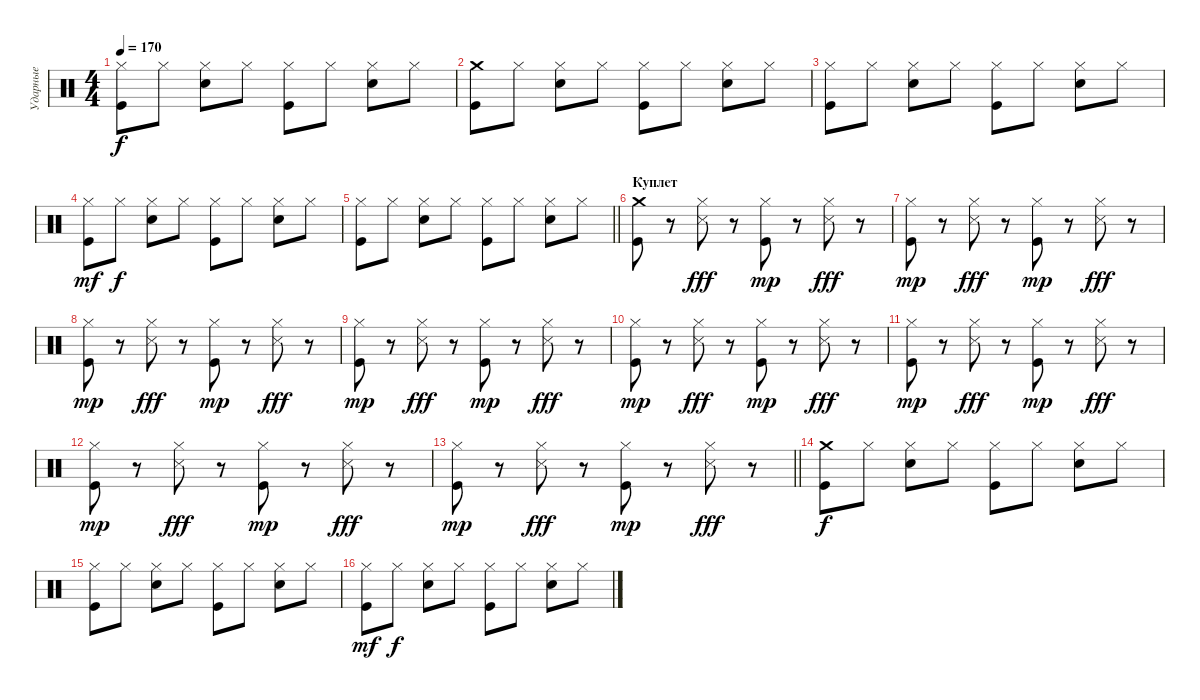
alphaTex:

\track ("Ударные" "Ударные") {instrument percussion}
\staff {score}
\articulation defaults
\ts (4 4)
\tempo 170
\clef neutral
\ks c
("Hi-Hat (closed)" "Kick (hit)").8{dy f} "Hi-Hat (closed)".8 ("Hi-Hat (closed)" "Electric Snare (hit)").8 "Hi-Hat (closed)".8 ("Hi-Hat (closed)" "Kick (hit)").8 "Hi-Hat (closed)".8 ("Hi-Hat (closed)" "Electric Snare (hit)").8 "Hi-Hat (closed)".8 |
("Crash medium (hit)" "Kick (hit)").8 "Hi-Hat (closed)".8 ("Hi-Hat (closed)" "Electric Snare (hit)").8 "Hi-Hat (closed)".8 ("Hi-Hat (closed)" "Kick (hit)").8 "Hi-Hat (closed)".8 ("Hi-Hat (closed)" "Electric Snare (hit)").8 "Hi-Hat (closed)".8 |
("Hi-Hat (closed)" "Kick (hit)").8 "Hi-Hat (closed)".8 ("Hi-Hat (closed)" "Electric Snare (hit)").8 "Hi-Hat (closed)".8 ("Hi-Hat (closed)" "Kick (hit)").8 "Hi-Hat (closed)".8 ("Hi-Hat (closed)" "Electric Snare (hit)").8 "Hi-Hat (closed)".8 |
("Hi-Hat (closed)" "Kick (hit)").8{dy mf} "Hi-Hat (closed)".8{dy f} ("Hi-Hat (closed)" "Electric Snare (hit)").8 "Hi-Hat (closed)".8 ("Hi-Hat (closed)" "Kick (hit)").8 "Hi-Hat (closed)".8 ("Hi-Hat (closed)" "Electric Snare (hit)").8 "Hi-Hat (closed)".8 |
\barLineRight lightlight
("Hi-Hat (closed)" "Kick (hit)").8 "Hi-Hat (closed)".8 ("Hi-Hat (closed)" "Electric Snare (hit)").8 "Hi-Hat (closed)".8 ("Hi-Hat (closed)" "Kick (hit)").8 "Hi-Hat (closed)".8 ("Hi-Hat (closed)" "Electric Snare (hit)").8 "Hi-Hat (closed)".8 |
\section ("" "Куплет")
("Crash medium (hit)" "Kick (hit)").8 r.8 ("Hi-Hat (closed)" "Metronome (hit)").8{dy fff} r.8 ("Hi-Hat (closed)" "Kick (hit)").8{dy mp} r.8 ("Hi-Hat (closed)" "Metronome (hit)").8{dy fff} r.8 |
("Hi-Hat (closed)" "Kick (hit)").8{dy mp} r.8 ("Hi-Hat (closed)" "Metronome (hit)").8{dy fff} r.8 ("Hi-Hat (closed)" "Kick (hit)").8{dy mp} r.8 ("Hi-Hat (closed)" "Metronome (hit)").8{dy fff} r.8 |
("Hi-Hat (closed)" "Kick (hit)").8{dy mp} r.8 ("Hi-Hat (closed)" "Metronome (hit)").8{dy fff} r.8 ("Hi-Hat (closed)" "Kick (hit)").8{dy mp} r.8 ("Hi-Hat (closed)" "Metronome (hit)").8{dy fff} r.8 |
("Hi-Hat (closed)" "Kick (hit)").8{dy mp} r.8 ("Hi-Hat (closed)" "Metronome (hit)").8{dy fff} r.8 ("Hi-Hat (closed)" "Kick (hit)").8{dy mp} r.8 ("Hi-Hat (closed)" "Metronome (hit)").8{dy fff} r.8 |
("Hi-Hat (closed)" "Kick (hit)").8{dy mp} r.8 ("Hi-Hat (closed)" "Metronome (hit)").8{dy fff} r.8 ("Hi-Hat (closed)" "Kick (hit)").8{dy mp} r.8 ("Hi-Hat (closed)" "Metronome (hit)").8{dy fff} r.8 |
("Hi-Hat (closed)" "Kick (hit)").8{dy mp} r.8 ("Hi-Hat (closed)" "Metronome (hit)").8{dy fff} r.8 ("Hi-Hat (closed)" "Kick (hit)").8{dy mp} r.8 ("Hi-Hat (closed)" "Metronome (hit)").8{dy fff} r.8 |
("Hi-Hat (closed)" "Kick (hit)").8{dy mp} r.8 ("Hi-Hat (closed)" "Metronome (hit)").8{dy fff} r.8 ("Hi-Hat (closed)" "Kick (hit)").8{dy mp} r.8 ("Hi-Hat (closed)" "Metronome (hit)").8{dy fff} r.8 |
\barLineRight lightlight
("Hi-Hat (closed)" "Kick (hit)").8{dy mp} r.8 ("Hi-Hat (closed)" "Metronome (hit)").8{dy fff} r.8 ("Hi-Hat (closed)" "Kick (hit)").8{dy mp} r.8 ("Hi-Hat (closed)" "Metronome (hit)").8{dy fff} r.8 |
\section ("" " ")
("Crash medium (hit)" "Kick (hit)").8{dy f} "Hi-Hat (closed)".8 ("Hi-Hat (closed)" "Electric Snare (hit)").8 "Hi-Hat (closed)".8 ("Hi-Hat (closed)" "Kick (hit)").8 "Hi-Hat (closed)".8 ("Hi-Hat (closed)" "Electric Snare (hit)").8 "Hi-Hat (closed)".8 |
("Hi-Hat (closed)" "Kick (hit)").8 "Hi-Hat (closed)".8 ("Hi-Hat (closed)" "Electric Snare (hit)").8 "Hi-Hat (closed)".8 ("Hi-Hat (closed)" "Kick (hit)").8 "Hi-Hat (closed)".8 ("Hi-Hat (closed)" "Electric Snare (hit)").8 "Hi-Hat (closed)".8 |
("Hi-Hat (closed)" "Kick (hit)").8{dy mf} "Hi-Hat (closed)".8{dy f} ("Hi-Hat (closed)" "Electric Snare (hit)").8 "Hi-Hat (closed)".8 ("Hi-Hat (closed)" "Kick (hit)").8 "Hi-Hat (closed)".8 ("Hi-Hat (closed)" "Electric Snare (hit)").8 "Hi-Hat (closed)".8
